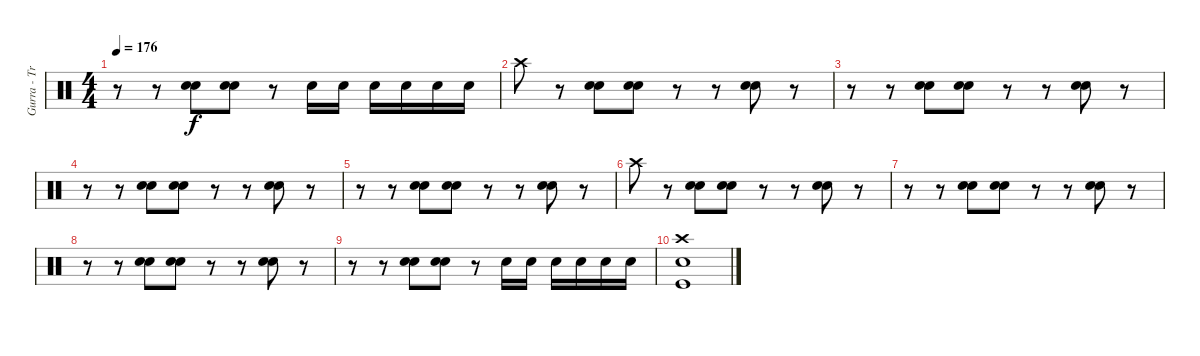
\track ("Gurra - Trummor" "Gurra - Tr") {instrument percussion}
\staff {score}
\articulation defaults
\ts (4 4)
\tempo 176
\clef neutral
\ks c
r.8{dy f} r.8 ("Electric Snare (hit)" "Electric Snare (hit)").8 ("Electric Snare (hit)" "Electric Snare (hit)").8 r.8 "Electric Snare (hit)".16 "Electric Snare (hit)".16 "Electric Snare (hit)".16 "Electric Snare (hit)".16 "Electric Snare (hit)".16 "Electric Snare (hit)".16 |
"Crash high (hit)".8 r.8 ("Electric Snare (hit)" "Electric Snare (hit)").8 ("Electric Snare (hit)" "Electric Snare (hit)").8 r.8 r.8 ("Electric Snare (hit)" "Electric Snare (hit)").8 r.8 |
r.8 r.8 ("Electric Snare (hit)" "Electric Snare (hit)").8 ("Electric Snare (hit)" "Electric Snare (hit)").8 r.8 r.8 ("Electric Snare (hit)" "Electric Snare (hit)").8 r.8 |
r.8 r.8 ("Electric Snare (hit)" "Electric Snare (hit)").8 ("Electric Snare (hit)" "Electric Snare (hit)").8 r.8 r.8 ("Electric Snare (hit)" "Electric Snare (hit)").8 r.8 |
r.8 r.8 ("Electric Snare (hit)" "Electric Snare (hit)").8 ("Electric Snare (hit)" "Electric Snare (hit)").8 r.8 r.8 ("Electric Snare (hit)" "Electric Snare (hit)").8 r.8 |
"Crash high (hit)".8 r.8 ("Electric Snare (hit)" "Electric Snare (hit)").8 ("Electric Snare (hit)" "Electric Snare (hit)").8 r.8 r.8 ("Electric Snare (hit)" "Electric Snare (hit)").8 r.8 |
r.8 r.8 ("Electric Snare (hit)" "Electric Snare (hit)").8 ("Electric Snare (hit)" "Electric Snare (hit)").8 r.8 r.8 ("Electric Snare (hit)" "Electric Snare (hit)").8 r.8 |
r.8 r.8 ("Electric Snare (hit)" "Electric Snare (hit)").8 ("Electric Snare (hit)" "Electric Snare (hit)").8 r.8 r.8 ("Electric Snare (hit)" "Electric Snare (hit)").8 r.8 |
r.8 r.8 ("Electric Snare (hit)" "Electric Snare (hit)").8 ("Electric Snare (hit)" "Electric Snare (hit)").8 r.8 "Electric Snare (hit)".16 "Electric Snare (hit)".16 "Electric Snare (hit)".16 "Electric Snare (hit)".16 "Electric Snare (hit)".16 "Electric Snare (hit)".16 |
("Crash high (hit)" "Snare (hit) 2" "Kick (hit)").1
